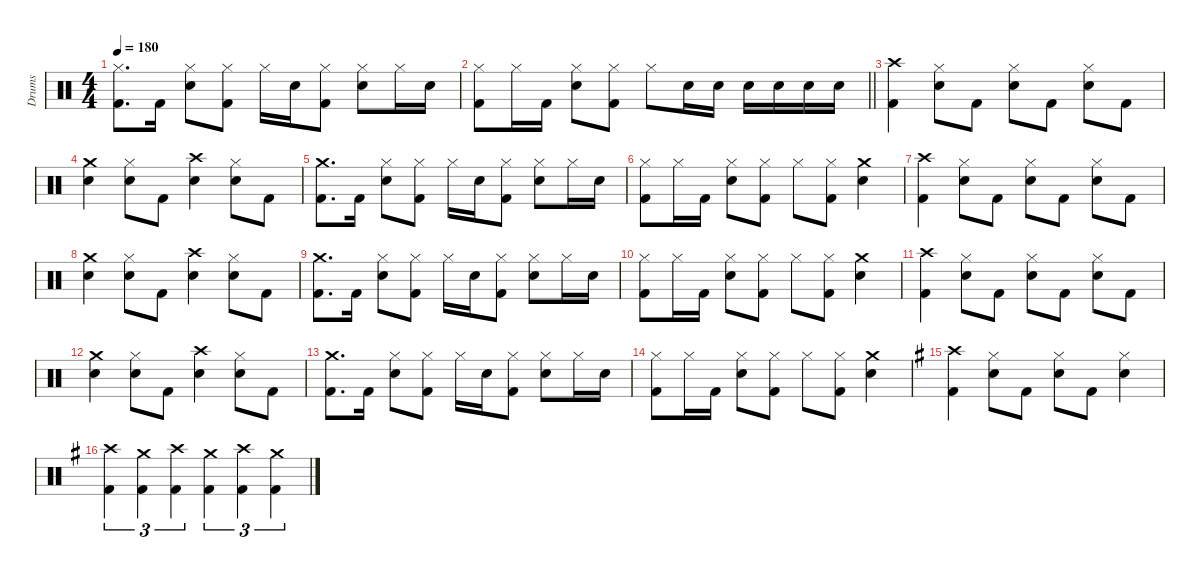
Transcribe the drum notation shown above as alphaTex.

\defaultSystemsLayout 4
\hideDynamics
\bracketExtendMode nobrackets
\firstSystemTrackNameMode fullname
\otherSystemsTrackNameOrientation horizontal
\track ("Drums" "drm.") {instrument percussion}
\staff {score}
\articulation defaults
\ts (4 4)
\tempo 180
\clef neutral
\ks c
("Hi-Hat (closed)" "Kick (hit) 2").8{d dy f beam Down} "Kick (hit) 2".16{beam Down} ("Hi-Hat (closed)" "Snare (hit) 2").8{beam Down} ("Hi-Hat (closed)" "Kick (hit) 2").8{beam Down} "Hi-Hat (closed)".16{beam Down} "Snare (hit) 2".16{dy p beam Down} ("Hi-Hat (closed)" "Kick (hit) 2").8{dy f beam Down} ("Hi-Hat (closed)" "Snare (hit) 2").8{beam Down} "Hi-Hat (closed)".16{beam Down} "Snare (hit) 2".16{beam Down} |
\barLineRight lightlight
("Hi-Hat (closed)" "Kick (hit) 2").8{dy ff beam Down} "Hi-Hat (closed)".16{beam Down} "Kick (hit) 2".16{dy f beam Down} ("Hi-Hat (closed)" "Snare (hit) 2").8{beam Down} ("Hi-Hat (closed)" "Kick (hit) 2").8{beam Down} "Hi-Hat (closed)".8{beam Down} "Snare (hit) 2".16{beam Down} "Snare (hit) 2".16{beam Down} "Snare (hit) 2".16{beam Down} "Snare (hit) 2".16{beam Down} "Snare (hit) 2".16{beam Down} "Snare (hit) 2".16{beam Down} |
("Crash high (hit)" "Kick (hit) 2").4{beam Down} ("Hi-Hat (closed)" "Snare (hit) 2").8{beam Down} "Kick (hit) 2".8{beam Down} ("Hi-Hat (closed)" "Snare (hit) 2").8{beam Down} "Kick (hit) 2".8{beam Down} ("Hi-Hat (closed)" "Snare (hit) 2").8{beam Down} "Kick (hit) 2".8{beam Down} |
("Crash medium (hit)" "Snare (hit) 2").4{beam Down} ("Hi-Hat (closed)" "Snare (hit) 2").8{beam Down} "Kick (hit) 2".8{beam Down} ("Crash high (hit)" "Snare (hit) 2").4{beam Down} ("Hi-Hat (closed)" "Snare (hit) 2").8{beam Down} "Kick (hit) 2".8{beam Down} |
("Crash medium (hit)" "Kick (hit) 2").8{d beam Down} "Kick (hit) 2".16{beam Down} ("Hi-Hat (closed)" "Snare (hit) 2").8{beam Down} ("Hi-Hat (closed)" "Kick (hit) 2").8{beam Down} "Hi-Hat (closed)".16{beam Down} "Snare (hit) 2".16{dy p beam Down} ("Hi-Hat (closed)" "Kick (hit) 2").8{dy f beam Down} ("Hi-Hat (closed)" "Snare (hit) 2").8{beam Down} "Hi-Hat (closed)".16{beam Down} "Snare (hit) 2".16{beam Down} |
("Hi-Hat (closed)" "Kick (hit) 2").8{dy ff beam Down} "Hi-Hat (closed)".16{beam Down} "Kick (hit) 2".16{dy f beam Down} ("Hi-Hat (closed)" "Snare (hit) 2").8{beam Down} ("Hi-Hat (closed)" "Kick (hit) 2").8{beam Down} "Hi-Hat (closed)".8{beam Down} ("Hi-Hat (closed)" "Kick (hit) 2").8{beam Down} ("Crash medium (hit)" "Snare (hit) 2").4{beam Down} |
("Crash high (hit)" "Kick (hit) 2").4{beam Down} ("Hi-Hat (closed)" "Snare (hit) 2").8{beam Down} "Kick (hit) 2".8{beam Down} ("Hi-Hat (closed)" "Snare (hit) 2").8{beam Down} "Kick (hit) 2".8{beam Down} ("Hi-Hat (closed)" "Snare (hit) 2").8{beam Down} "Kick (hit) 2".8{beam Down} |
("Crash medium (hit)" "Snare (hit) 2").4{beam Down} ("Hi-Hat (closed)" "Snare (hit) 2").8{beam Down} "Kick (hit) 2".8{beam Down} ("Crash high (hit)" "Snare (hit) 2").4{beam Down} ("Hi-Hat (closed)" "Snare (hit) 2").8{beam Down} "Kick (hit) 2".8{beam Down} |
("Crash medium (hit)" "Kick (hit) 2").8{d beam Down} "Kick (hit) 2".16{beam Down} ("Hi-Hat (closed)" "Snare (hit) 2").8{beam Down} ("Hi-Hat (closed)" "Kick (hit) 2").8{beam Down} "Hi-Hat (closed)".16{beam Down} "Snare (hit) 2".16{dy p beam Down} ("Hi-Hat (closed)" "Kick (hit) 2").8{dy f beam Down} ("Hi-Hat (closed)" "Snare (hit) 2").8{beam Down} "Hi-Hat (closed)".16{beam Down} "Snare (hit) 2".16{beam Down} |
("Hi-Hat (closed)" "Kick (hit) 2").8{dy ff beam Down} "Hi-Hat (closed)".16{beam Down} "Kick (hit) 2".16{dy f beam Down} ("Hi-Hat (closed)" "Snare (hit) 2").8{beam Down} ("Hi-Hat (closed)" "Kick (hit) 2").8{beam Down} "Hi-Hat (closed)".8{beam Down} ("Hi-Hat (closed)" "Kick (hit) 2").8{beam Down} ("Crash medium (hit)" "Snare (hit) 2").4{beam Down} |
("Crash high (hit)" "Kick (hit) 2").4{beam Down} ("Hi-Hat (closed)" "Snare (hit) 2").8{beam Down} "Kick (hit) 2".8{beam Down} ("Hi-Hat (closed)" "Snare (hit) 2").8{beam Down} "Kick (hit) 2".8{beam Down} ("Hi-Hat (closed)" "Snare (hit) 2").8{beam Down} "Kick (hit) 2".8{beam Down} |
("Crash medium (hit)" "Snare (hit) 2").4{beam Down} ("Hi-Hat (closed)" "Snare (hit) 2").8{beam Down} "Kick (hit) 2".8{beam Down} ("Crash high (hit)" "Snare (hit) 2").4{beam Down} ("Hi-Hat (closed)" "Snare (hit) 2").8{beam Down} "Kick (hit) 2".8{beam Down} |
("Crash medium (hit)" "Kick (hit) 2").8{d beam Down} "Kick (hit) 2".16{beam Down} ("Hi-Hat (closed)" "Snare (hit) 2").8{beam Down} ("Hi-Hat (closed)" "Kick (hit) 2").8{beam Down} "Hi-Hat (closed)".16{beam Down} "Snare (hit) 2".16{dy p beam Down} ("Hi-Hat (closed)" "Kick (hit) 2").8{dy f beam Down} ("Hi-Hat (closed)" "Snare (hit) 2").8{beam Down} "Hi-Hat (closed)".16{beam Down} "Snare (hit) 2".16{beam Down} |
("Hi-Hat (closed)" "Kick (hit) 2").8{dy ff beam Down} "Hi-Hat (closed)".16{beam Down} "Kick (hit) 2".16{dy f beam Down} ("Hi-Hat (closed)" "Snare (hit) 2").8{beam Down} ("Hi-Hat (closed)" "Kick (hit) 2").8{beam Down} "Hi-Hat (closed)".8{beam Down} ("Hi-Hat (closed)" "Kick (hit) 2").8{beam Down} ("Crash medium (hit)" "Snare (hit) 2").4{beam Down} |
\ks g
("Crash high (hit)"{acc forcenatural} "Kick (hit) 2"{acc forcenatural}).4{beam Down} ("Hi-Hat (closed)"{acc forcenatural} "Snare (hit) 2"{acc forcenatural}).8{beam Down} "Kick (hit) 2"{acc forcenatural}.8{beam Down} ("Hi-Hat (closed)"{acc forcenatural} "Snare (hit) 2"{acc forcenatural}).8{beam Down} "Kick (hit) 2"{acc forcenatural}.8{beam Down} ("Hi-Hat (closed)"{acc forcenatural} "Snare (hit) 2"{acc forcenatural}).4{beam Down} |
("Crash high (hit)"{acc forcenatural} "Kick (hit) 2"{acc forcenatural}).4{tu (3 2) beam Down} ("Crash medium (hit)"{acc forcenatural} "Kick (hit) 2"{acc forcenatural}).4{tu (3 2) beam Down} ("Crash high (hit)"{acc forcenatural} "Kick (hit) 2"{acc forcenatural}).4{tu (3 2) beam Down} ("Crash medium (hit)"{acc forcenatural} "Kick (hit) 2"{acc forcenatural}).4{tu (3 2) beam Down} ("Crash high (hit)"{acc forcenatural} "Kick (hit) 2"{acc forcenatural}).4{tu (3 2) beam Down} ("Crash medium (hit)"{acc forcenatural} "Kick (hit) 2"{acc forcenatural}).4{tu (3 2) beam Down}
